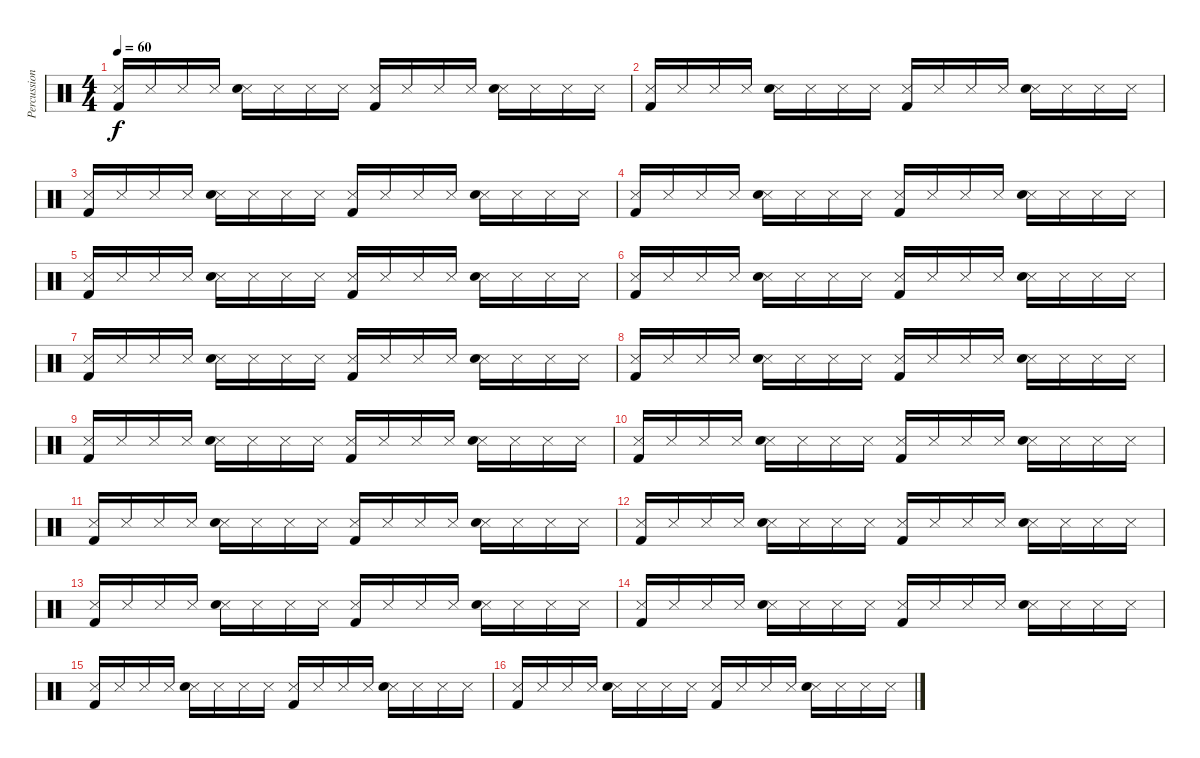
\track ("Percussions" "Percussion") {instrument percussion}
\staff {score}
\articulation defaults
\ts (4 4)
\tempo 60
\clef neutral
\ks c
("Snare (side stick) 3" "Kick (hit) 2").16{dy f} "Snare (side stick) 3".16 "Snare (side stick) 3".16 "Snare (side stick) 3".16 ("Snare (side stick) 3" "Electric Snare (hit)").16 "Snare (side stick) 3".16 "Snare (side stick) 3".16 "Snare (side stick) 3".16 ("Snare (side stick) 3" "Kick (hit) 2").16 "Snare (side stick) 3".16 "Snare (side stick) 3".16 "Snare (side stick) 3".16 ("Snare (side stick) 3" "Electric Snare (hit)").16 "Snare (side stick) 3".16 "Snare (side stick) 3".16 "Snare (side stick) 3".16 |
("Snare (side stick) 3" "Kick (hit) 2").16 "Snare (side stick) 3".16 "Snare (side stick) 3".16 "Snare (side stick) 3".16 ("Snare (side stick) 3" "Electric Snare (hit)").16 "Snare (side stick) 3".16 "Snare (side stick) 3".16 "Snare (side stick) 3".16 ("Snare (side stick) 3" "Kick (hit) 2").16 "Snare (side stick) 3".16 "Snare (side stick) 3".16 "Snare (side stick) 3".16 ("Snare (side stick) 3" "Electric Snare (hit)").16 "Snare (side stick) 3".16 "Snare (side stick) 3".16 "Snare (side stick) 3".16 |
("Snare (side stick) 3" "Kick (hit) 2").16 "Snare (side stick) 3".16 "Snare (side stick) 3".16 "Snare (side stick) 3".16 ("Snare (side stick) 3" "Electric Snare (hit)").16 "Snare (side stick) 3".16 "Snare (side stick) 3".16 "Snare (side stick) 3".16 ("Snare (side stick) 3" "Kick (hit) 2").16 "Snare (side stick) 3".16 "Snare (side stick) 3".16 "Snare (side stick) 3".16 ("Snare (side stick) 3" "Electric Snare (hit)").16 "Snare (side stick) 3".16 "Snare (side stick) 3".16 "Snare (side stick) 3".16 |
("Snare (side stick) 3" "Kick (hit) 2").16 "Snare (side stick) 3".16 "Snare (side stick) 3".16 "Snare (side stick) 3".16 ("Snare (side stick) 3" "Electric Snare (hit)").16 "Snare (side stick) 3".16 "Snare (side stick) 3".16 "Snare (side stick) 3".16 ("Snare (side stick) 3" "Kick (hit) 2").16 "Snare (side stick) 3".16 "Snare (side stick) 3".16 "Snare (side stick) 3".16 ("Snare (side stick) 3" "Electric Snare (hit)").16 "Snare (side stick) 3".16 "Snare (side stick) 3".16 "Snare (side stick) 3".16 |
("Snare (side stick) 3" "Kick (hit) 2").16 "Snare (side stick) 3".16 "Snare (side stick) 3".16 "Snare (side stick) 3".16 ("Snare (side stick) 3" "Electric Snare (hit)").16 "Snare (side stick) 3".16 "Snare (side stick) 3".16 "Snare (side stick) 3".16 ("Snare (side stick) 3" "Kick (hit) 2").16 "Snare (side stick) 3".16 "Snare (side stick) 3".16 "Snare (side stick) 3".16 ("Snare (side stick) 3" "Electric Snare (hit)").16 "Snare (side stick) 3".16 "Snare (side stick) 3".16 "Snare (side stick) 3".16 |
("Snare (side stick) 3" "Kick (hit) 2").16 "Snare (side stick) 3".16 "Snare (side stick) 3".16 "Snare (side stick) 3".16 ("Snare (side stick) 3" "Electric Snare (hit)").16 "Snare (side stick) 3".16 "Snare (side stick) 3".16 "Snare (side stick) 3".16 ("Snare (side stick) 3" "Kick (hit) 2").16 "Snare (side stick) 3".16 "Snare (side stick) 3".16 "Snare (side stick) 3".16 ("Snare (side stick) 3" "Electric Snare (hit)").16 "Snare (side stick) 3".16 "Snare (side stick) 3".16 "Snare (side stick) 3".16 |
("Snare (side stick) 3" "Kick (hit) 2").16 "Snare (side stick) 3".16 "Snare (side stick) 3".16 "Snare (side stick) 3".16 ("Snare (side stick) 3" "Electric Snare (hit)").16 "Snare (side stick) 3".16 "Snare (side stick) 3".16 "Snare (side stick) 3".16 ("Snare (side stick) 3" "Kick (hit) 2").16 "Snare (side stick) 3".16 "Snare (side stick) 3".16 "Snare (side stick) 3".16 ("Snare (side stick) 3" "Electric Snare (hit)").16 "Snare (side stick) 3".16 "Snare (side stick) 3".16 "Snare (side stick) 3".16 |
("Snare (side stick) 3" "Kick (hit) 2").16 "Snare (side stick) 3".16 "Snare (side stick) 3".16 "Snare (side stick) 3".16 ("Snare (side stick) 3" "Electric Snare (hit)").16 "Snare (side stick) 3".16 "Snare (side stick) 3".16 "Snare (side stick) 3".16 ("Snare (side stick) 3" "Kick (hit) 2").16 "Snare (side stick) 3".16 "Snare (side stick) 3".16 "Snare (side stick) 3".16 ("Snare (side stick) 3" "Electric Snare (hit)").16 "Snare (side stick) 3".16 "Snare (side stick) 3".16 "Snare (side stick) 3".16 |
("Snare (side stick) 3" "Kick (hit) 2").16 "Snare (side stick) 3".16 "Snare (side stick) 3".16 "Snare (side stick) 3".16 ("Snare (side stick) 3" "Electric Snare (hit)").16 "Snare (side stick) 3".16 "Snare (side stick) 3".16 "Snare (side stick) 3".16 ("Snare (side stick) 3" "Kick (hit) 2").16 "Snare (side stick) 3".16 "Snare (side stick) 3".16 "Snare (side stick) 3".16 ("Snare (side stick) 3" "Electric Snare (hit)").16 "Snare (side stick) 3".16 "Snare (side stick) 3".16 "Snare (side stick) 3".16 |
("Snare (side stick) 3" "Kick (hit) 2").16 "Snare (side stick) 3".16 "Snare (side stick) 3".16 "Snare (side stick) 3".16 ("Snare (side stick) 3" "Electric Snare (hit)").16 "Snare (side stick) 3".16 "Snare (side stick) 3".16 "Snare (side stick) 3".16 ("Snare (side stick) 3" "Kick (hit) 2").16 "Snare (side stick) 3".16 "Snare (side stick) 3".16 "Snare (side stick) 3".16 ("Snare (side stick) 3" "Electric Snare (hit)").16 "Snare (side stick) 3".16 "Snare (side stick) 3".16 "Snare (side stick) 3".16 |
("Snare (side stick) 3" "Kick (hit) 2").16 "Snare (side stick) 3".16 "Snare (side stick) 3".16 "Snare (side stick) 3".16 ("Snare (side stick) 3" "Electric Snare (hit)").16 "Snare (side stick) 3".16 "Snare (side stick) 3".16 "Snare (side stick) 3".16 ("Snare (side stick) 3" "Kick (hit) 2").16 "Snare (side stick) 3".16 "Snare (side stick) 3".16 "Snare (side stick) 3".16 ("Snare (side stick) 3" "Electric Snare (hit)").16 "Snare (side stick) 3".16 "Snare (side stick) 3".16 "Snare (side stick) 3".16 |
("Snare (side stick) 3" "Kick (hit) 2").16 "Snare (side stick) 3".16 "Snare (side stick) 3".16 "Snare (side stick) 3".16 ("Snare (side stick) 3" "Electric Snare (hit)").16 "Snare (side stick) 3".16 "Snare (side stick) 3".16 "Snare (side stick) 3".16 ("Snare (side stick) 3" "Kick (hit) 2").16 "Snare (side stick) 3".16 "Snare (side stick) 3".16 "Snare (side stick) 3".16 ("Snare (side stick) 3" "Electric Snare (hit)").16 "Snare (side stick) 3".16 "Snare (side stick) 3".16 "Snare (side stick) 3".16 |
("Snare (side stick) 3" "Kick (hit) 2").16 "Snare (side stick) 3".16 "Snare (side stick) 3".16 "Snare (side stick) 3".16 ("Snare (side stick) 3" "Electric Snare (hit)").16 "Snare (side stick) 3".16 "Snare (side stick) 3".16 "Snare (side stick) 3".16 ("Snare (side stick) 3" "Kick (hit) 2").16 "Snare (side stick) 3".16 "Snare (side stick) 3".16 "Snare (side stick) 3".16 ("Snare (side stick) 3" "Electric Snare (hit)").16 "Snare (side stick) 3".16 "Snare (side stick) 3".16 "Snare (side stick) 3".16 |
("Snare (side stick) 3" "Kick (hit) 2").16 "Snare (side stick) 3".16 "Snare (side stick) 3".16 "Snare (side stick) 3".16 ("Snare (side stick) 3" "Electric Snare (hit)").16 "Snare (side stick) 3".16 "Snare (side stick) 3".16 "Snare (side stick) 3".16 ("Snare (side stick) 3" "Kick (hit) 2").16 "Snare (side stick) 3".16 "Snare (side stick) 3".16 "Snare (side stick) 3".16 ("Snare (side stick) 3" "Electric Snare (hit)").16 "Snare (side stick) 3".16 "Snare (side stick) 3".16 "Snare (side stick) 3".16 |
("Snare (side stick) 3" "Kick (hit) 2").16 "Snare (side stick) 3".16 "Snare (side stick) 3".16 "Snare (side stick) 3".16 ("Snare (side stick) 3" "Electric Snare (hit)").16 "Snare (side stick) 3".16 "Snare (side stick) 3".16 "Snare (side stick) 3".16 ("Snare (side stick) 3" "Kick (hit) 2").16 "Snare (side stick) 3".16 "Snare (side stick) 3".16 "Snare (side stick) 3".16 ("Snare (side stick) 3" "Electric Snare (hit)").16 "Snare (side stick) 3".16 "Snare (side stick) 3".16 "Snare (side stick) 3".16 |
("Snare (side stick) 3" "Kick (hit) 2").16 "Snare (side stick) 3".16 "Snare (side stick) 3".16 "Snare (side stick) 3".16 ("Snare (side stick) 3" "Electric Snare (hit)").16 "Snare (side stick) 3".16 "Snare (side stick) 3".16 "Snare (side stick) 3".16 ("Snare (side stick) 3" "Kick (hit) 2").16 "Snare (side stick) 3".16 "Snare (side stick) 3".16 "Snare (side stick) 3".16 ("Snare (side stick) 3" "Electric Snare (hit)").16 "Snare (side stick) 3".16 "Snare (side stick) 3".16 "Snare (side stick) 3".16
